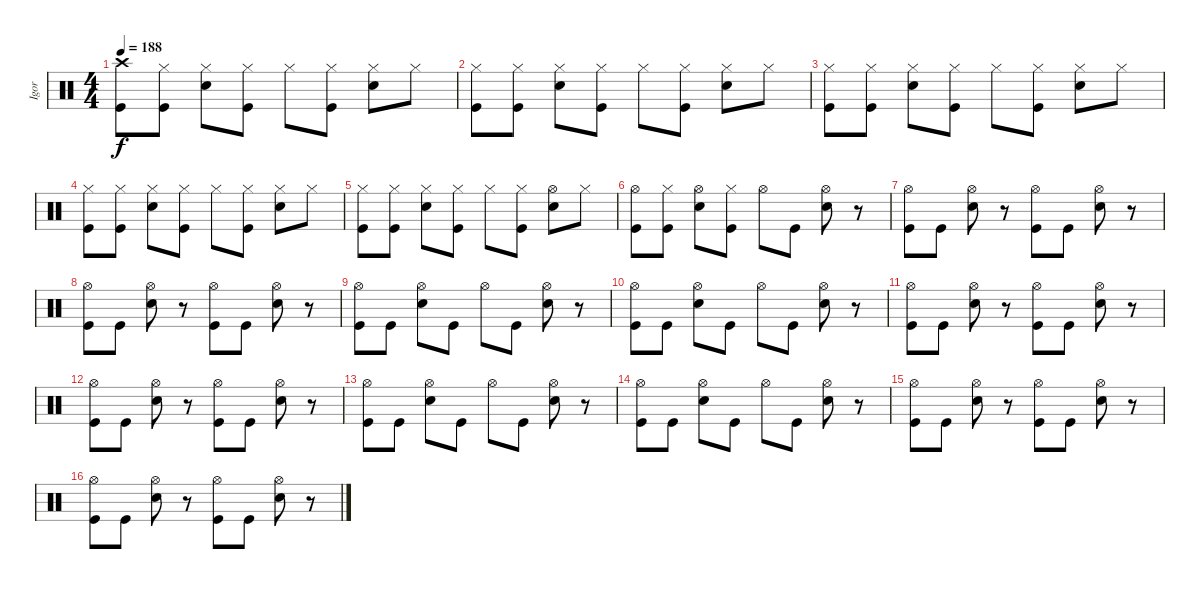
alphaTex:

\track ("Igor" "Igor") {instrument percussion}
\staff {score}
\articulation defaults
\ts (4 4)
\tempo 188
\clef neutral
\ks c
("Crash high (hit)" "Kick (hit)").8{dy f} ("Hi-Hat (closed)" "Kick (hit)").8 ("Hi-Hat (closed)" "Snare (hit) 2").8 ("Hi-Hat (closed)" "Kick (hit)").8 "Hi-Hat (closed)".8 ("Hi-Hat (closed)" "Kick (hit)").8 ("Hi-Hat (closed)" "Snare (hit) 2").8 "Hi-Hat (closed)".8 |
("Hi-Hat (closed)" "Kick (hit)").8 ("Hi-Hat (closed)" "Kick (hit)").8 ("Hi-Hat (closed)" "Snare (hit) 2").8 ("Hi-Hat (closed)" "Kick (hit)").8 "Hi-Hat (closed)".8 ("Hi-Hat (closed)" "Kick (hit)").8 ("Hi-Hat (closed)" "Snare (hit) 2").8 "Hi-Hat (closed)".8 |
("Hi-Hat (closed)" "Kick (hit)").8 ("Hi-Hat (closed)" "Kick (hit)").8 ("Hi-Hat (closed)" "Snare (hit) 2").8 ("Hi-Hat (closed)" "Kick (hit)").8 "Hi-Hat (closed)".8 ("Hi-Hat (closed)" "Kick (hit)").8 ("Hi-Hat (closed)" "Snare (hit) 2").8 "Hi-Hat (closed)".8 |
("Hi-Hat (closed)" "Kick (hit)").8 ("Hi-Hat (closed)" "Kick (hit)").8 ("Hi-Hat (closed)" "Snare (hit) 2").8 ("Hi-Hat (closed)" "Kick (hit)").8 "Hi-Hat (closed)".8 ("Hi-Hat (closed)" "Kick (hit)").8 ("Hi-Hat (closed)" "Snare (hit) 2").8 "Hi-Hat (closed)".8 |
("Hi-Hat (closed)" "Kick (hit)").8 ("Hi-Hat (closed)" "Kick (hit)").8 ("Hi-Hat (closed)" "Snare (hit) 2").8 ("Hi-Hat (closed)" "Kick (hit)").8 "Hi-Hat (closed)".8 ("Hi-Hat (closed)" "Kick (hit)").8 ("Hi-Hat (open)" "Snare (hit) 2").8 "Hi-Hat (closed)".8 |
("Hi-Hat (open)" "Kick (hit)").8 ("Hi-Hat (closed)" "Kick (hit)").8 ("Hi-Hat (open)" "Snare (hit) 2").8 ("Hi-Hat (closed)" "Kick (hit)").8 "Hi-Hat (open)".8 "Kick (hit)".8 ("Hi-Hat (open)" "Snare (hit) 2").8 r.8 |
("Hi-Hat (open)" "Kick (hit)").8 "Kick (hit)".8 ("Hi-Hat (open)" "Snare (hit) 2").8 r.8 ("Hi-Hat (open)" "Kick (hit)").8 "Kick (hit)".8 ("Hi-Hat (open)" "Snare (hit) 2").8 r.8 |
("Hi-Hat (open)" "Kick (hit)").8 "Kick (hit)".8 ("Hi-Hat (open)" "Snare (hit) 2").8 r.8 ("Hi-Hat (open)" "Kick (hit)").8 "Kick (hit)".8 ("Hi-Hat (open)" "Snare (hit) 2").8 r.8 |
("Hi-Hat (open)" "Kick (hit)").8 "Kick (hit)".8 ("Hi-Hat (open)" "Snare (hit) 2").8 "Kick (hit)".8 "Hi-Hat (open)".8 "Kick (hit)".8 ("Hi-Hat (open)" "Snare (hit) 2").8 r.8 |
("Hi-Hat (open)" "Kick (hit)").8 "Kick (hit)".8 ("Hi-Hat (open)" "Snare (hit) 2").8 "Kick (hit)".8 "Hi-Hat (open)".8 "Kick (hit)".8 ("Hi-Hat (open)" "Snare (hit) 2").8 r.8 |
("Hi-Hat (open)" "Kick (hit)").8 "Kick (hit)".8 ("Hi-Hat (open)" "Snare (hit) 2").8 r.8 ("Hi-Hat (open)" "Kick (hit)").8 "Kick (hit)".8 ("Hi-Hat (open)" "Snare (hit) 2").8 r.8 |
("Hi-Hat (open)" "Kick (hit)").8 "Kick (hit)".8 ("Hi-Hat (open)" "Snare (hit) 2").8 r.8 ("Hi-Hat (open)" "Kick (hit)").8 "Kick (hit)".8 ("Hi-Hat (open)" "Snare (hit) 2").8 r.8 |
("Hi-Hat (open)" "Kick (hit)").8 "Kick (hit)".8 ("Hi-Hat (open)" "Snare (hit) 2").8 "Kick (hit)".8 "Hi-Hat (open)".8 "Kick (hit)".8 ("Hi-Hat (open)" "Snare (hit) 2").8 r.8 |
("Hi-Hat (open)" "Kick (hit)").8 "Kick (hit)".8 ("Hi-Hat (open)" "Snare (hit) 2").8 "Kick (hit)".8 "Hi-Hat (open)".8 "Kick (hit)".8 ("Hi-Hat (open)" "Snare (hit) 2").8 r.8 |
("Hi-Hat (open)" "Kick (hit)").8 "Kick (hit)".8 ("Hi-Hat (open)" "Snare (hit) 2").8 r.8 ("Hi-Hat (open)" "Kick (hit)").8 "Kick (hit)".8 ("Hi-Hat (open)" "Snare (hit) 2").8 r.8 |
("Hi-Hat (open)" "Kick (hit)").8 "Kick (hit)".8 ("Hi-Hat (open)" "Snare (hit) 2").8 r.8 ("Hi-Hat (open)" "Kick (hit)").8 "Kick (hit)".8 ("Hi-Hat (open)" "Snare (hit) 2").8 r.8
